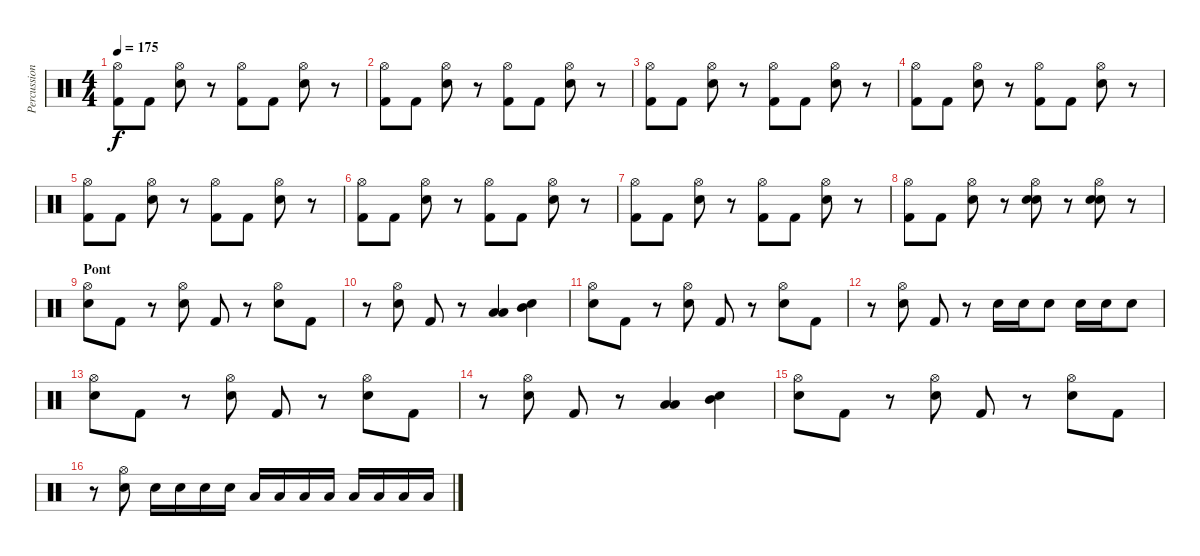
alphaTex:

\track ("Percussions" "Percussion") {instrument percussion}
\staff {score}
\articulation defaults
\ts (4 4)
\tempo 175
\clef neutral
\ks c
("Hi-Hat (open)" "Kick (hit) 2").8{dy f} "Kick (hit) 2".8 ("Hi-Hat (open)" "Snare (hit) 2").8 r.8 ("Hi-Hat (open)" "Kick (hit) 2").8 "Kick (hit) 2".8 ("Hi-Hat (open)" "Snare (hit) 2").8 r.8 |
("Hi-Hat (open)" "Kick (hit) 2").8 "Kick (hit) 2".8 ("Hi-Hat (open)" "Snare (hit) 2").8 r.8 ("Hi-Hat (open)" "Kick (hit) 2").8 "Kick (hit) 2".8 ("Hi-Hat (open)" "Snare (hit) 2").8 r.8 |
("Hi-Hat (open)" "Kick (hit) 2").8 "Kick (hit) 2".8 ("Hi-Hat (open)" "Snare (hit) 2").8 r.8 ("Hi-Hat (open)" "Kick (hit) 2").8 "Kick (hit) 2".8 ("Hi-Hat (open)" "Snare (hit) 2").8 r.8 |
("Hi-Hat (open)" "Kick (hit) 2").8 "Kick (hit) 2".8 ("Hi-Hat (open)" "Snare (hit) 2").8 r.8 ("Hi-Hat (open)" "Kick (hit) 2").8 "Kick (hit) 2".8 ("Hi-Hat (open)" "Snare (hit) 2").8 r.8 |
("Hi-Hat (open)" "Kick (hit) 2").8 "Kick (hit) 2".8 ("Hi-Hat (open)" "Snare (hit) 2").8 r.8 ("Hi-Hat (open)" "Kick (hit) 2").8 "Kick (hit) 2".8 ("Hi-Hat (open)" "Snare (hit) 2").8 r.8 |
("Hi-Hat (open)" "Kick (hit) 2").8 "Kick (hit) 2".8 ("Hi-Hat (open)" "Snare (hit) 2").8 r.8 ("Hi-Hat (open)" "Kick (hit) 2").8 "Kick (hit) 2".8 ("Hi-Hat (open)" "Snare (hit) 2").8 r.8 |
("Hi-Hat (open)" "Kick (hit) 2").8 "Kick (hit) 2".8 ("Hi-Hat (open)" "Snare (hit) 2").8 r.8 ("Hi-Hat (open)" "Kick (hit) 2").8 "Kick (hit) 2".8 ("Hi-Hat (open)" "Snare (hit) 2").8 r.8 |
("Hi-Hat (open)" "Kick (hit) 2").8 "Kick (hit) 2".8 ("Hi-Hat (open)" "Snare (hit) 2").8 r.8 ("Hi-Hat (open)" "Snare (hit) 2" "Snare (hit) 2").8{bd 60} r.8 ("Hi-Hat (open)" "Snare (hit) 2" "Snare (hit) 2").8{bd 60} r.8 |
\section ("" "Pont")
("Hi-Hat (open)" "Snare (hit) 2").8 "Kick (hit) 2".8 r.8 ("Hi-Hat (open)" "Snare (hit) 2").8 "Kick (hit) 2".8 r.8 ("Hi-Hat (open)" "Snare (hit) 2").8 "Kick (hit) 2".8 |
r.8 ("Hi-Hat (open)" "Snare (hit) 2").8 "Kick (hit) 2".8 r.8 ("Low Floor Tom (hit)" "Low Tom (hit)").4{bu 60} ("Snare (hit) 2" "Mid Tom (hit)").4{bu 60} |
("Hi-Hat (open)" "Snare (hit) 2").8 "Kick (hit) 2".8 r.8 ("Hi-Hat (open)" "Snare (hit) 2").8 "Kick (hit) 2".8 r.8 ("Hi-Hat (open)" "Snare (hit) 2").8 "Kick (hit) 2".8 |
r.8 ("Hi-Hat (open)" "Snare (hit) 2").8 "Kick (hit) 2".8 r.8 "Snare (hit) 2".16 "Snare (hit) 2".16 "Snare (hit) 2".8 "Snare (hit) 2".16 "Snare (hit) 2".16 "Snare (hit) 2".8 |
("Hi-Hat (open)" "Snare (hit) 2").8 "Kick (hit) 2".8 r.8 ("Hi-Hat (open)" "Snare (hit) 2").8 "Kick (hit) 2".8 r.8 ("Hi-Hat (open)" "Snare (hit) 2").8 "Kick (hit) 2".8 |
r.8 ("Hi-Hat (open)" "Snare (hit) 2").8 "Kick (hit) 2".8 r.8 ("Low Floor Tom (hit)" "Low Tom (hit)").4{bu 60} ("Snare (hit) 2" "Mid Tom (hit)").4{bu 60} |
("Hi-Hat (open)" "Snare (hit) 2").8 "Kick (hit) 2".8 r.8 ("Hi-Hat (open)" "Snare (hit) 2").8 "Kick (hit) 2".8 r.8 ("Hi-Hat (open)" "Snare (hit) 2").8 "Kick (hit) 2".8 |
r.8 ("Hi-Hat (open)" "Snare (hit) 2").8 "Snare (hit) 2".16 "Snare (hit) 2".16 "Snare (hit) 2".16 "Snare (hit) 2".16 "Low Tom (hit)".16 "Low Tom (hit)".16 "Low Tom (hit)".16 "Low Tom (hit)".16 "Low Floor Tom (hit)".16 "Low Floor Tom (hit)".16 "Low Floor Tom (hit)".16 "Low Floor Tom (hit)".16
